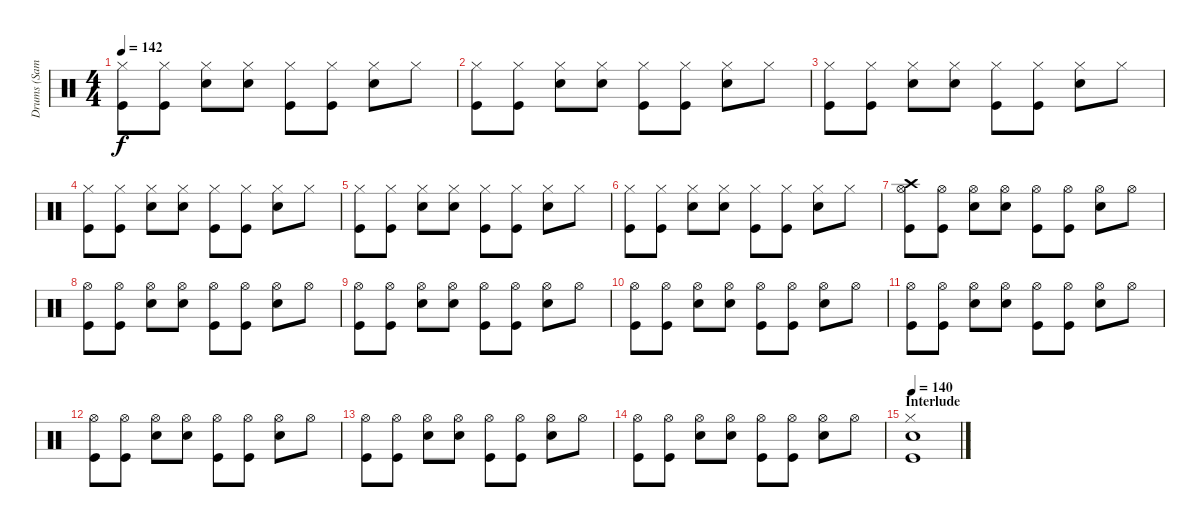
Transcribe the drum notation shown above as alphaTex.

\track ("Drums (Sam)" "Drums (Sam") {instrument percussion}
\staff {score}
\articulation defaults
\ts (4 4)
\tempo 142
\clef neutral
\ks c
("Hi-Hat (closed)" "Kick (hit)").8{dy f} ("Hi-Hat (closed)" "Kick (hit)").8 ("Hi-Hat (closed)" "Snare (hit) 2").8 ("Hi-Hat (closed)" "Snare (hit) 2").8 ("Hi-Hat (closed)" "Kick (hit)").8 ("Hi-Hat (closed)" "Kick (hit)").8 ("Hi-Hat (closed)" "Snare (hit) 2").8 "Hi-Hat (closed)".8 |
("Hi-Hat (closed)" "Kick (hit)").8 ("Hi-Hat (closed)" "Kick (hit)").8 ("Hi-Hat (closed)" "Snare (hit) 2").8 ("Hi-Hat (closed)" "Snare (hit) 2").8 ("Hi-Hat (closed)" "Kick (hit)").8 ("Hi-Hat (closed)" "Kick (hit)").8 ("Hi-Hat (closed)" "Snare (hit) 2").8 "Hi-Hat (closed)".8 |
("Hi-Hat (closed)" "Kick (hit)").8 ("Hi-Hat (closed)" "Kick (hit)").8 ("Hi-Hat (closed)" "Snare (hit) 2").8 ("Hi-Hat (closed)" "Snare (hit) 2").8 ("Hi-Hat (closed)" "Kick (hit)").8 ("Hi-Hat (closed)" "Kick (hit)").8 ("Hi-Hat (closed)" "Snare (hit) 2").8 "Hi-Hat (closed)".8 |
("Hi-Hat (closed)" "Kick (hit)").8 ("Hi-Hat (closed)" "Kick (hit)").8 ("Hi-Hat (closed)" "Snare (hit) 2").8 ("Hi-Hat (closed)" "Snare (hit) 2").8 ("Hi-Hat (closed)" "Kick (hit)").8 ("Hi-Hat (closed)" "Kick (hit)").8 ("Hi-Hat (closed)" "Snare (hit) 2").8 "Hi-Hat (closed)".8 |
("Hi-Hat (closed)" "Kick (hit)").8 ("Hi-Hat (closed)" "Kick (hit)").8 ("Hi-Hat (closed)" "Snare (hit) 2").8 ("Hi-Hat (closed)" "Snare (hit) 2").8 ("Hi-Hat (closed)" "Kick (hit)").8 ("Hi-Hat (closed)" "Kick (hit)").8 ("Hi-Hat (closed)" "Snare (hit) 2").8 "Hi-Hat (closed)".8 |
("Hi-Hat (closed)" "Kick (hit)").8 ("Hi-Hat (closed)" "Kick (hit)").8 ("Hi-Hat (closed)" "Snare (hit) 2").8 ("Hi-Hat (closed)" "Snare (hit) 2").8 ("Hi-Hat (closed)" "Kick (hit)").8 ("Hi-Hat (closed)" "Kick (hit)").8 ("Hi-Hat (closed)" "Snare (hit) 2").8 "Hi-Hat (closed)".8 |
("Crash high (hit)" "Hi-Hat (open)" "Kick (hit)").8 ("Hi-Hat (open)" "Kick (hit)").8 ("Hi-Hat (open)" "Snare (hit) 2").8 ("Hi-Hat (open)" "Snare (hit) 2").8 ("Hi-Hat (open)" "Kick (hit)").8 ("Hi-Hat (open)" "Kick (hit)").8 ("Hi-Hat (open)" "Snare (hit) 2").8 "Hi-Hat (open)".8 |
("Hi-Hat (open)" "Kick (hit)").8 ("Hi-Hat (open)" "Kick (hit)").8 ("Hi-Hat (open)" "Snare (hit) 2").8 ("Hi-Hat (open)" "Snare (hit) 2").8 ("Hi-Hat (open)" "Kick (hit)").8 ("Hi-Hat (open)" "Kick (hit)").8 ("Hi-Hat (open)" "Snare (hit) 2").8 "Hi-Hat (open)".8 |
("Hi-Hat (open)" "Kick (hit)").8 ("Hi-Hat (open)" "Kick (hit)").8 ("Hi-Hat (open)" "Snare (hit) 2").8 ("Hi-Hat (open)" "Snare (hit) 2").8 ("Hi-Hat (open)" "Kick (hit)").8 ("Hi-Hat (open)" "Kick (hit)").8 ("Hi-Hat (open)" "Snare (hit) 2").8 "Hi-Hat (open)".8 |
("Hi-Hat (open)" "Kick (hit)").8 ("Hi-Hat (open)" "Kick (hit)").8 ("Hi-Hat (open)" "Snare (hit) 2").8 ("Hi-Hat (open)" "Snare (hit) 2").8 ("Hi-Hat (open)" "Kick (hit)").8 ("Hi-Hat (open)" "Kick (hit)").8 ("Hi-Hat (open)" "Snare (hit) 2").8 "Hi-Hat (open)".8 |
("Hi-Hat (open)" "Kick (hit)").8 ("Hi-Hat (open)" "Kick (hit)").8 ("Hi-Hat (open)" "Snare (hit) 2").8 ("Hi-Hat (open)" "Snare (hit) 2").8 ("Hi-Hat (open)" "Kick (hit)").8 ("Hi-Hat (open)" "Kick (hit)").8 ("Hi-Hat (open)" "Snare (hit) 2").8 "Hi-Hat (open)".8 |
("Hi-Hat (open)" "Kick (hit)").8 ("Hi-Hat (open)" "Kick (hit)").8 ("Hi-Hat (open)" "Snare (hit) 2").8 ("Hi-Hat (open)" "Snare (hit) 2").8 ("Hi-Hat (open)" "Kick (hit)").8 ("Hi-Hat (open)" "Kick (hit)").8 ("Hi-Hat (open)" "Snare (hit) 2").8 "Hi-Hat (open)".8 |
("Hi-Hat (open)" "Kick (hit)").8 ("Hi-Hat (open)" "Kick (hit)").8 ("Hi-Hat (open)" "Snare (hit) 2").8 ("Hi-Hat (open)" "Snare (hit) 2").8 ("Hi-Hat (open)" "Kick (hit)").8 ("Hi-Hat (open)" "Kick (hit)").8 ("Hi-Hat (open)" "Snare (hit) 2").8 "Hi-Hat (open)".8 |
("Hi-Hat (open)" "Kick (hit)").8 ("Hi-Hat (open)" "Kick (hit)").8 ("Hi-Hat (open)" "Snare (hit) 2").8 ("Hi-Hat (open)" "Snare (hit) 2").8 ("Hi-Hat (open)" "Kick (hit)").8 ("Hi-Hat (open)" "Kick (hit)").8 ("Hi-Hat (open)" "Snare (hit) 2").8 "Hi-Hat (open)".8 |
\section ("" "Interlude")
\tempo 140
("Hi-Hat (closed)" "Snare (hit) 2" "Kick (hit)").1
